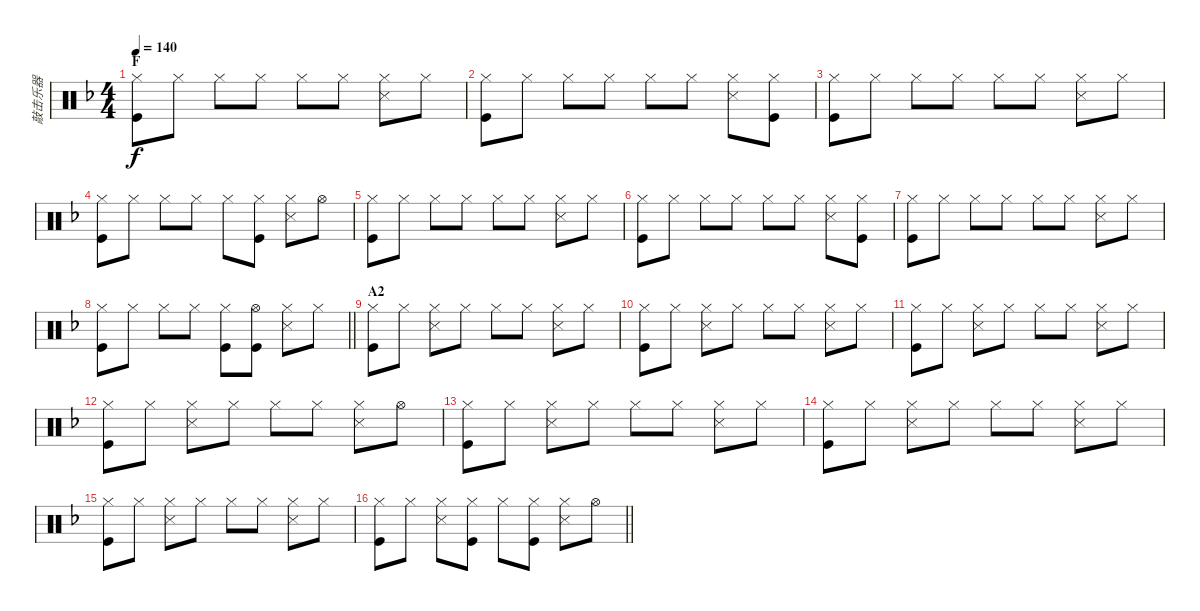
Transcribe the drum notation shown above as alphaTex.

\track ("敲击乐器" "敲击乐器") {instrument percussion}
\staff {score}
\articulation defaults
\ts (4 4)
\section ("" "F")
\tempo 140
\clef neutral
\ks f
("Hi-Hat (closed)" "Kick (hit)").8{dy f} "Hi-Hat (closed)".8 "Hi-Hat (closed)".8 "Hi-Hat (closed)".8 "Hi-Hat (closed)".8 "Hi-Hat (closed)".8 ("Hi-Hat (closed)" "Snare (side stick) 3").8 "Hi-Hat (closed)".8 |
("Hi-Hat (closed)" "Kick (hit)").8 "Hi-Hat (closed)".8 "Hi-Hat (closed)".8 "Hi-Hat (closed)".8 "Hi-Hat (closed)".8 "Hi-Hat (closed)".8 ("Hi-Hat (closed)" "Snare (side stick) 3").8 ("Hi-Hat (closed)" "Kick (hit)").8 |
("Hi-Hat (closed)" "Kick (hit)").8 "Hi-Hat (closed)".8 "Hi-Hat (closed)".8 "Hi-Hat (closed)".8 "Hi-Hat (closed)".8 "Hi-Hat (closed)".8 ("Hi-Hat (closed)" "Snare (side stick) 3").8 "Hi-Hat (closed)".8 |
("Hi-Hat (closed)" "Kick (hit)").8 "Hi-Hat (closed)".8 "Hi-Hat (closed)".8 "Hi-Hat (closed)".8 "Hi-Hat (closed)".8 ("Hi-Hat (closed)" "Kick (hit)").8 ("Hi-Hat (closed)" "Snare (side stick) 3").8 "Hi-Hat (open)".8 |
("Hi-Hat (closed)" "Kick (hit)").8 "Hi-Hat (closed)".8 "Hi-Hat (closed)".8 "Hi-Hat (closed)".8 "Hi-Hat (closed)".8 "Hi-Hat (closed)".8 ("Hi-Hat (closed)" "Snare (side stick) 3").8 "Hi-Hat (closed)".8 |
("Hi-Hat (closed)" "Kick (hit)").8 "Hi-Hat (closed)".8 "Hi-Hat (closed)".8 "Hi-Hat (closed)".8 "Hi-Hat (closed)".8 "Hi-Hat (closed)".8 ("Hi-Hat (closed)" "Snare (side stick) 3").8 ("Hi-Hat (closed)" "Kick (hit)").8 |
("Hi-Hat (closed)" "Kick (hit)").8 "Hi-Hat (closed)".8 "Hi-Hat (closed)".8 "Hi-Hat (closed)".8 "Hi-Hat (closed)".8 "Hi-Hat (closed)".8 ("Hi-Hat (closed)" "Snare (side stick) 3").8 "Hi-Hat (closed)".8 |
\barLineRight lightlight
("Hi-Hat (closed)" "Kick (hit)").8 "Hi-Hat (closed)".8 "Hi-Hat (closed)".8 "Hi-Hat (closed)".8 ("Hi-Hat (closed)" "Kick (hit)").8 ("Hi-Hat (open)" "Kick (hit)").8 ("Hi-Hat (closed)" "Snare (side stick) 3").8 "Hi-Hat (closed)".8 |
\section ("" "A2")
("Hi-Hat (closed)" "Kick (hit)").8 "Hi-Hat (closed)".8 ("Hi-Hat (closed)" "Snare (side stick) 3").8 "Hi-Hat (closed)".8 "Hi-Hat (closed)".8 "Hi-Hat (closed)".8 ("Hi-Hat (closed)" "Snare (side stick) 3").8 "Hi-Hat (closed)".8 |
("Hi-Hat (closed)" "Kick (hit)").8 "Hi-Hat (closed)".8 ("Hi-Hat (closed)" "Snare (side stick) 3").8 "Hi-Hat (closed)".8 "Hi-Hat (closed)".8 "Hi-Hat (closed)".8 ("Hi-Hat (closed)" "Snare (side stick) 3").8 "Hi-Hat (closed)".8 |
("Hi-Hat (closed)" "Kick (hit)").8 "Hi-Hat (closed)".8 ("Hi-Hat (closed)" "Snare (side stick) 3").8 "Hi-Hat (closed)".8 "Hi-Hat (closed)".8 "Hi-Hat (closed)".8 ("Hi-Hat (closed)" "Snare (side stick) 3").8 "Hi-Hat (closed)".8 |
("Hi-Hat (closed)" "Kick (hit)").8 "Hi-Hat (closed)".8 ("Hi-Hat (closed)" "Snare (side stick) 3").8 "Hi-Hat (closed)".8 "Hi-Hat (closed)".8 "Hi-Hat (closed)".8 ("Hi-Hat (closed)" "Snare (side stick) 3").8 "Hi-Hat (open)".8 |
("Hi-Hat (closed)" "Kick (hit)").8 "Hi-Hat (closed)".8 ("Hi-Hat (closed)" "Snare (side stick) 3").8 "Hi-Hat (closed)".8 "Hi-Hat (closed)".8 "Hi-Hat (closed)".8 ("Hi-Hat (closed)" "Snare (side stick) 3").8 "Hi-Hat (closed)".8 |
("Hi-Hat (closed)" "Kick (hit)").8 "Hi-Hat (closed)".8 ("Hi-Hat (closed)" "Snare (side stick) 3").8 "Hi-Hat (closed)".8 "Hi-Hat (closed)".8 "Hi-Hat (closed)".8 ("Hi-Hat (closed)" "Snare (side stick) 3").8 "Hi-Hat (closed)".8 |
("Hi-Hat (closed)" "Kick (hit)").8 "Hi-Hat (closed)".8 ("Hi-Hat (closed)" "Snare (side stick) 3").8 "Hi-Hat (closed)".8 "Hi-Hat (closed)".8 "Hi-Hat (closed)".8 ("Hi-Hat (closed)" "Snare (side stick) 3").8 "Hi-Hat (closed)".8 |
\barLineRight lightlight
("Hi-Hat (closed)" "Kick (hit)").8 "Hi-Hat (closed)".8 ("Hi-Hat (closed)" "Snare (side stick) 3").8 ("Hi-Hat (closed)" "Kick (hit)").8 "Hi-Hat (closed)".8 ("Hi-Hat (closed)" "Kick (hit)").8 ("Hi-Hat (closed)" "Snare (side stick) 3").8 "Hi-Hat (open)".8
